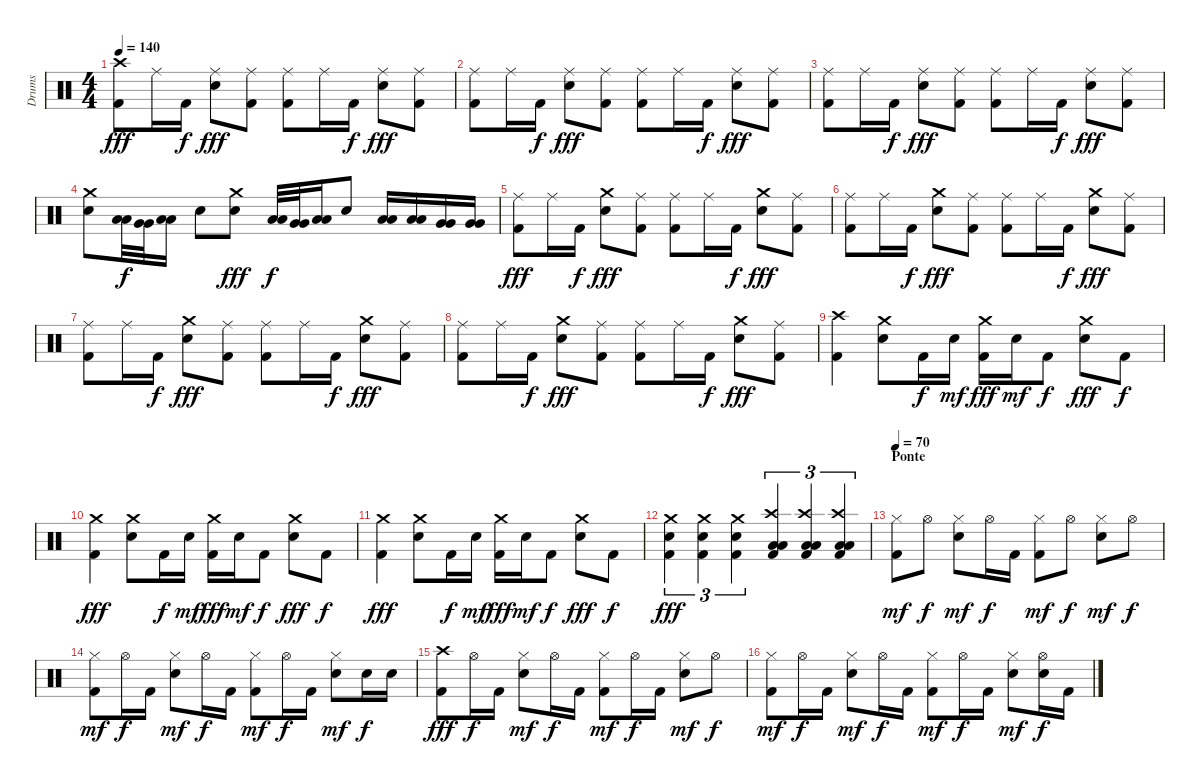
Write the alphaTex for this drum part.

\track ("Drums" "Drums") {instrument percussion}
\staff {score}
\articulation defaults
\ts (4 4)
\tempo 140
\clef neutral
\ks c
("Kick (hit) 2" "Crash high (hit)").8{dy fff} "Ride (middle)".16 "Kick (hit) 2".16{dy f} ("Electric Snare (hit)" "Ride (middle)").8{dy fff} ("Kick (hit) 2" "Ride (middle)").8 ("Kick (hit) 2" "Ride (middle)").8 "Ride (middle)".16 "Kick (hit) 2".16{dy f} ("Electric Snare (hit)" "Ride (middle)").8{dy fff} ("Kick (hit) 2" "Ride (middle)").8 |
("Kick (hit) 2" "Ride (middle)").8 "Ride (middle)".16 "Kick (hit) 2".16{dy f} ("Electric Snare (hit)" "Ride (middle)").8{dy fff} ("Kick (hit) 2" "Ride (middle)").8 ("Kick (hit) 2" "Ride (middle)").8 "Ride (middle)".16 "Kick (hit) 2".16{dy f} ("Electric Snare (hit)" "Ride (middle)").8{dy fff} ("Kick (hit) 2" "Ride (middle)").8 |
("Kick (hit) 2" "Ride (middle)").8 "Ride (middle)".16 "Kick (hit) 2".16{dy f} ("Electric Snare (hit)" "Ride (middle)").8{dy fff} ("Kick (hit) 2" "Ride (middle)").8 ("Kick (hit) 2" "Ride (middle)").8 "Ride (middle)".16 "Kick (hit) 2".16{dy f} ("Electric Snare (hit)" "Ride (middle)").8{dy fff} ("Kick (hit) 2" "Ride (middle)").8 |
("Electric Snare (hit)" "Crash medium (hit)").8 ("Low Tom (hit)" "Low Tom (hit)").32{dy f} ("Very Low Tom (hit)" "Very Low Tom (hit)").32 ("Low Floor Tom (hit)" "Low Floor Tom (hit)").16 "Electric Snare (hit)".8 ("Electric Snare (hit)" "Crash medium (hit)").8{dy fff} ("Low Tom (hit)" "Low Tom (hit)").32{dy f} ("Very Low Tom (hit)" "Very Low Tom (hit)").32 ("Low Floor Tom (hit)" "Low Floor Tom (hit)").16 "Electric Snare (hit)".8 ("Low Tom (hit)" "Low Tom (hit)").16 ("Low Tom (hit)" "Low Tom (hit)").16 ("Very Low Tom (hit)" "Very Low Tom (hit)").16 ("Very Low Tom (hit)" "Very Low Tom (hit)").16 |
("Kick (hit) 2" "Ride (middle)").8{dy fff} "Ride (middle)".16 "Kick (hit) 2".16{dy f} ("Electric Snare (hit)" "Crash medium (hit)").8{dy fff} ("Kick (hit) 2" "Ride (middle)").8 ("Kick (hit) 2" "Ride (middle)").8 "Ride (middle)".16 "Kick (hit) 2".16{dy f} ("Electric Snare (hit)" "Crash medium (hit)").8{dy fff} ("Kick (hit) 2" "Ride (middle)").8 |
("Kick (hit) 2" "Ride (middle)").8 "Ride (middle)".16 "Kick (hit) 2".16{dy f} ("Electric Snare (hit)" "Crash medium (hit)").8{dy fff} ("Kick (hit) 2" "Ride (middle)").8 ("Kick (hit) 2" "Ride (middle)").8 "Ride (middle)".16 "Kick (hit) 2".16{dy f} ("Electric Snare (hit)" "Crash medium (hit)").8{dy fff} ("Kick (hit) 2" "Ride (middle)").8 |
("Kick (hit) 2" "Ride (middle)").8 "Ride (middle)".16 "Kick (hit) 2".16{dy f} ("Electric Snare (hit)" "Crash medium (hit)").8{dy fff} ("Kick (hit) 2" "Ride (middle)").8 ("Kick (hit) 2" "Ride (middle)").8 "Ride (middle)".16 "Kick (hit) 2".16{dy f} ("Electric Snare (hit)" "Crash medium (hit)").8{dy fff} ("Kick (hit) 2" "Ride (middle)").8 |
("Kick (hit) 2" "Ride (middle)").8 "Ride (middle)".16 "Kick (hit) 2".16{dy f} ("Electric Snare (hit)" "Crash medium (hit)").8{dy fff} ("Kick (hit) 2" "Ride (middle)").8 ("Kick (hit) 2" "Ride (middle)").8 "Ride (middle)".16 "Kick (hit) 2".16{dy f} ("Electric Snare (hit)" "Crash medium (hit)").8{dy fff} ("Kick (hit) 2" "Ride (middle)").8 |
("Kick (hit) 2" "Crash high (hit)").4 ("Electric Snare (hit)" "Crash medium (hit)").8 "Kick (hit) 2".16{dy f} "Electric Snare (hit)".16{dy mf} ("Kick (hit) 2" "Crash medium (hit)").16{dy fff} "Electric Snare (hit)".16{dy mf} "Kick (hit) 2".8{dy f} ("Electric Snare (hit)" "Crash medium (hit)").8{dy fff} "Kick (hit) 2".8{dy f} |
("Kick (hit) 2" "Crash medium (hit)").4{dy fff} ("Electric Snare (hit)" "Crash medium (hit)").8 "Kick (hit) 2".16{dy f} "Electric Snare (hit)".16{dy mf} ("Kick (hit) 2" "Crash medium (hit)").16{dy fff} "Electric Snare (hit)".16{dy mf} "Kick (hit) 2".8{dy f} ("Electric Snare (hit)" "Crash medium (hit)").8{dy fff} "Kick (hit) 2".8{dy f} |
("Kick (hit) 2" "Crash medium (hit)").4{dy fff} ("Electric Snare (hit)" "Crash medium (hit)").8 "Kick (hit) 2".16{dy f} "Electric Snare (hit)".16{dy mf} ("Kick (hit) 2" "Crash medium (hit)").16{dy fff} "Electric Snare (hit)".16{dy mf} "Kick (hit) 2".8{dy f} ("Electric Snare (hit)" "Crash medium (hit)").8{dy fff} "Kick (hit) 2".8{dy f} |
("Electric Snare (hit)" "Kick (hit) 2" "Crash medium (hit)").4{tu (3 2) dy fff} ("Electric Snare (hit)" "Kick (hit) 2" "Crash medium (hit)").4{tu (3 2)} ("Electric Snare (hit)" "Kick (hit) 2" "Crash medium (hit)").4{tu (3 2)} ("Low Tom (hit)" "Low Tom (hit)" "Kick (hit) 2" "Crash high (hit)").4{tu (3 2)} ("Low Tom (hit)" "Low Tom (hit)" "Kick (hit) 2" "Crash high (hit)").4{tu (3 2)} ("Low Tom (hit)" "Low Tom (hit)" "Kick (hit) 2" "Crash high (hit)").4{tu (3 2)} |
\section ("" "Ponte")
\tempo 70
("Kick (hit) 2" "Hi-Hat (closed)").8{dy mf} "Hi-Hat (open)".8{dy f} ("Electric Snare (hit)" "Hi-Hat (closed)").8{dy mf} "Hi-Hat (open)".16{dy f} "Kick (hit) 2".16 ("Kick (hit) 2" "Hi-Hat (closed)").8{dy mf} "Hi-Hat (open)".8{dy f} ("Electric Snare (hit)" "Hi-Hat (closed)").8{dy mf} "Hi-Hat (open)".8{dy f} |
("Kick (hit) 2" "Hi-Hat (closed)").8{dy mf} "Hi-Hat (open)".16{dy f} "Kick (hit) 2".16 ("Electric Snare (hit)" "Hi-Hat (closed)").8{dy mf} "Hi-Hat (open)".16{dy f} "Kick (hit) 2".16 ("Kick (hit) 2" "Hi-Hat (closed)").8{dy mf} "Hi-Hat (open)".16{dy f} "Kick (hit) 2".16 ("Electric Snare (hit)" "Hi-Hat (closed)").8{dy mf} "Electric Snare (hit)".16{dy f} "Electric Snare (hit)".16 |
("Kick (hit) 2" "Crash high (hit)").8{dy fff} "Hi-Hat (open)".16{dy f} "Kick (hit) 2".16 ("Electric Snare (hit)" "Hi-Hat (closed)").8{dy mf} "Hi-Hat (open)".16{dy f} "Kick (hit) 2".16 ("Kick (hit) 2" "Hi-Hat (closed)").8{dy mf} "Hi-Hat (open)".16{dy f} "Kick (hit) 2".16 ("Electric Snare (hit)" "Hi-Hat (closed)").8{dy mf} "Hi-Hat (open)".8{dy f} |
("Kick (hit) 2" "Hi-Hat (closed)").8{dy mf} "Hi-Hat (open)".16{dy f} "Kick (hit) 2".16 ("Electric Snare (hit)" "Hi-Hat (closed)").8{dy mf} "Hi-Hat (open)".16{dy f} "Kick (hit) 2".16 ("Kick (hit) 2" "Hi-Hat (closed)").8{dy mf} "Hi-Hat (open)".16{dy f} "Kick (hit) 2".16 ("Electric Snare (hit)" "Hi-Hat (closed)").8{dy mf} ("Electric Snare (hit)" "Hi-Hat (open)").16{dy f} "Kick (hit) 2".16
